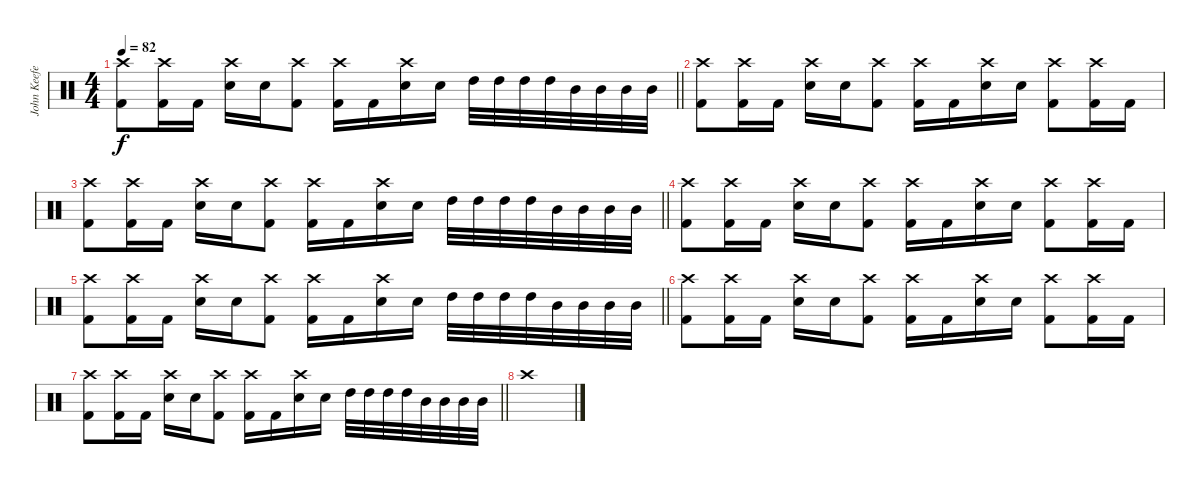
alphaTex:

\track ("John Keefe (Percussion)" "John Keefe") {instrument percussion}
\staff {score}
\articulation defaults
\ts (4 4)
\tempo 82
\clef neutral
\barLineRight lightlight
\ks c
("Crash high (hit)" "Kick (hit) 2").8{dy f} ("Crash high (hit)" "Kick (hit) 2").16 "Kick (hit) 2".16 ("Crash high (hit)" "Snare (hit) 2").16 "Snare (hit) 2".16 ("Crash high (hit)" "Kick (hit) 2").8 ("Crash high (hit)" "Kick (hit) 2").16 "Kick (hit) 2".16 ("Crash high (hit)" "Snare (hit) 2").16 "Snare (hit) 2".16 "High Tom (hit)".32 "High Tom (hit)".32 "High Tom (hit)".32 "High Tom (hit)".32 "Mid Tom (hit)".32 "Mid Tom (hit)".32 "Mid Tom (hit)".32 "Mid Tom (hit)".32 |
("Crash high (hit)" "Kick (hit) 2").8 ("Crash high (hit)" "Kick (hit) 2").16 "Kick (hit) 2".16 ("Crash high (hit)" "Snare (hit) 2").16 "Snare (hit) 2".16 ("Crash high (hit)" "Kick (hit) 2").8 ("Crash high (hit)" "Kick (hit) 2").16 "Kick (hit) 2".16 ("Crash high (hit)" "Snare (hit) 2").16 "Snare (hit) 2".16 ("Crash high (hit)" "Kick (hit) 2").8 ("Crash high (hit)" "Kick (hit) 2").16 "Kick (hit) 2".16 |
\barLineRight lightlight
("Crash high (hit)" "Kick (hit) 2").8 ("Crash high (hit)" "Kick (hit) 2").16 "Kick (hit) 2".16 ("Crash high (hit)" "Snare (hit) 2").16 "Snare (hit) 2".16 ("Crash high (hit)" "Kick (hit) 2").8 ("Crash high (hit)" "Kick (hit) 2").16 "Kick (hit) 2".16 ("Crash high (hit)" "Snare (hit) 2").16 "Snare (hit) 2".16 "High Tom (hit)".32 "High Tom (hit)".32 "High Tom (hit)".32 "High Tom (hit)".32 "Mid Tom (hit)".32 "Mid Tom (hit)".32 "Mid Tom (hit)".32 "Mid Tom (hit)".32 |
("Crash high (hit)" "Kick (hit) 2").8 ("Crash high (hit)" "Kick (hit) 2").16 "Kick (hit) 2".16 ("Crash high (hit)" "Snare (hit) 2").16 "Snare (hit) 2".16 ("Crash high (hit)" "Kick (hit) 2").8 ("Crash high (hit)" "Kick (hit) 2").16 "Kick (hit) 2".16 ("Crash high (hit)" "Snare (hit) 2").16 "Snare (hit) 2".16 ("Crash high (hit)" "Kick (hit) 2").8 ("Crash high (hit)" "Kick (hit) 2").16 "Kick (hit) 2".16 |
\barLineRight lightlight
("Crash high (hit)" "Kick (hit) 2").8 ("Crash high (hit)" "Kick (hit) 2").16 "Kick (hit) 2".16 ("Crash high (hit)" "Snare (hit) 2").16 "Snare (hit) 2".16 ("Crash high (hit)" "Kick (hit) 2").8 ("Crash high (hit)" "Kick (hit) 2").16 "Kick (hit) 2".16 ("Crash high (hit)" "Snare (hit) 2").16 "Snare (hit) 2".16 "High Tom (hit)".32 "High Tom (hit)".32 "High Tom (hit)".32 "High Tom (hit)".32 "Mid Tom (hit)".32 "Mid Tom (hit)".32 "Mid Tom (hit)".32 "Mid Tom (hit)".32 |
("Crash high (hit)" "Kick (hit) 2").8 ("Crash high (hit)" "Kick (hit) 2").16 "Kick (hit) 2".16 ("Crash high (hit)" "Snare (hit) 2").16 "Snare (hit) 2".16 ("Crash high (hit)" "Kick (hit) 2").8 ("Crash high (hit)" "Kick (hit) 2").16 "Kick (hit) 2".16 ("Crash high (hit)" "Snare (hit) 2").16 "Snare (hit) 2".16 ("Crash high (hit)" "Kick (hit) 2").8 ("Crash high (hit)" "Kick (hit) 2").16 "Kick (hit) 2".16 |
\barLineRight lightlight
("Crash high (hit)" "Kick (hit) 2").8 ("Crash high (hit)" "Kick (hit) 2").16 "Kick (hit) 2".16 ("Crash high (hit)" "Snare (hit) 2").16 "Snare (hit) 2".16 ("Crash high (hit)" "Kick (hit) 2").8 ("Crash high (hit)" "Kick (hit) 2").16 "Kick (hit) 2".16 ("Crash high (hit)" "Snare (hit) 2").16 "Snare (hit) 2".16 "High Tom (hit)".32 "High Tom (hit)".32 "High Tom (hit)".32 "High Tom (hit)".32 "Mid Tom (hit)".32 "Mid Tom (hit)".32 "Mid Tom (hit)".32 "Mid Tom (hit)".32 |
"Crash high (hit)".1
